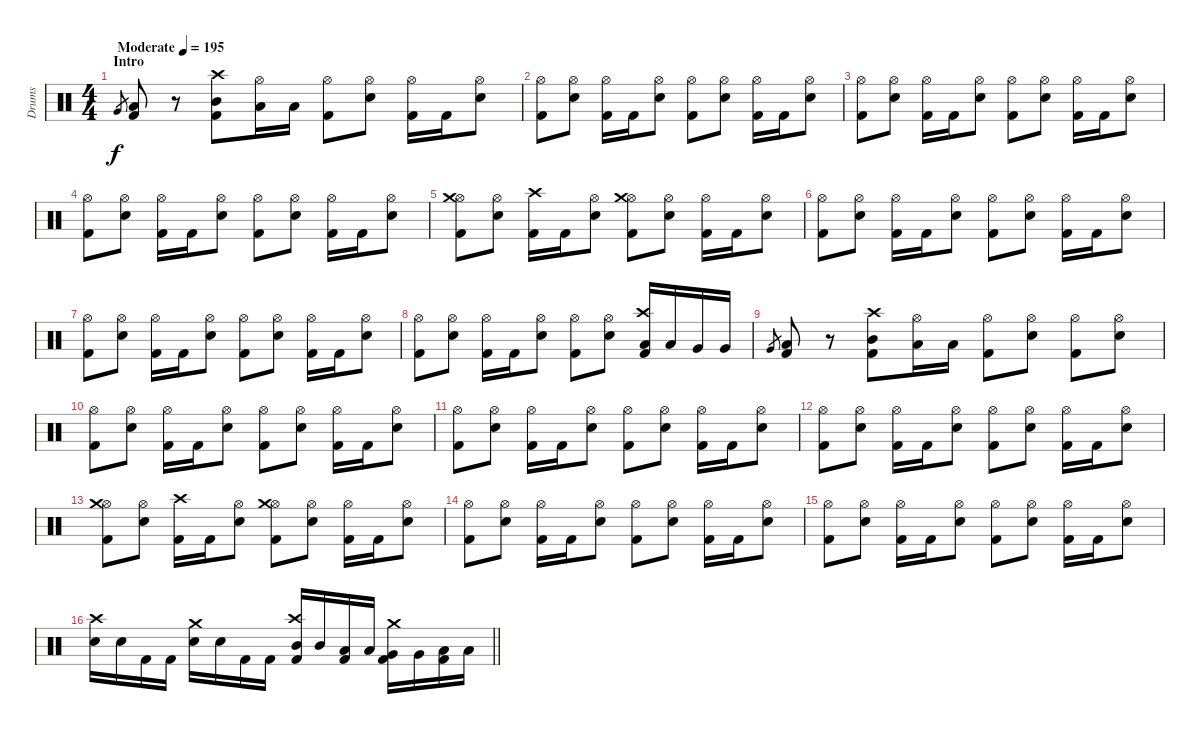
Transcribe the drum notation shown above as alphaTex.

\track ("Drums" "Drums") {instrument percussion}
\staff {score}
\articulation defaults
\ts (4 4)
\section ("" "Intro")
\tempo (195 "Moderate")
\clef neutral
\ks c "Very Low Tom (hit)".8{gr dy f}
("Low Floor Tom (hit)" "Kick (hit) 2").8 r.8 ("Crash high (hit)" "Mid Tom (hit)" "Kick (hit) 2").8 ("Hi-Hat (open)" "Low Tom (hit)").16 "Low Tom (hit)".16 ("Hi-Hat (open)" "Kick (hit) 2").8 ("Hi-Hat (open)" "Snare (hit) 2").8 ("Hi-Hat (open)" "Kick (hit) 2").16 "Kick (hit) 2".16 ("Hi-Hat (open)" "Snare (hit) 2").8 |
("Hi-Hat (open)" "Kick (hit) 2").8 ("Hi-Hat (open)" "Snare (hit) 2").8 ("Hi-Hat (open)" "Kick (hit) 2").16 "Kick (hit) 2".16 ("Hi-Hat (open)" "Snare (hit) 2").8 ("Hi-Hat (open)" "Kick (hit) 2").8 ("Hi-Hat (open)" "Snare (hit) 2").8 ("Hi-Hat (open)" "Kick (hit) 2").16 "Kick (hit) 2".16 ("Hi-Hat (open)" "Snare (hit) 2").8 |
("Hi-Hat (open)" "Kick (hit) 2").8 ("Hi-Hat (open)" "Snare (hit) 2").8 ("Hi-Hat (open)" "Kick (hit) 2").16 "Kick (hit) 2".16 ("Hi-Hat (open)" "Snare (hit) 2").8 ("Hi-Hat (open)" "Kick (hit) 2").8 ("Hi-Hat (open)" "Snare (hit) 2").8 ("Hi-Hat (open)" "Kick (hit) 2").16 "Kick (hit) 2".16 ("Hi-Hat (open)" "Snare (hit) 2").8 |
("Hi-Hat (open)" "Kick (hit) 2").8 ("Hi-Hat (open)" "Snare (hit) 2").8 ("Hi-Hat (open)" "Kick (hit) 2").16 "Kick (hit) 2".16 ("Hi-Hat (open)" "Snare (hit) 2").8 ("Hi-Hat (open)" "Kick (hit) 2").8 ("Hi-Hat (open)" "Snare (hit) 2").8 ("Hi-Hat (open)" "Kick (hit) 2").16 "Kick (hit) 2".16 ("Hi-Hat (open)" "Snare (hit) 2").8 |
("Hi-Hat (open)" "Crash medium (hit)" "Kick (hit) 2").8 ("Hi-Hat (open)" "Snare (hit) 2").8 ("Crash high (hit)" "Kick (hit) 2").16 "Kick (hit) 2".16 ("Hi-Hat (open)" "Snare (hit) 2").8 ("Hi-Hat (open)" "Crash medium (hit)" "Kick (hit) 2").8 ("Hi-Hat (open)" "Snare (hit) 2").8 ("Hi-Hat (open)" "Kick (hit) 2").16 "Kick (hit) 2".16 ("Hi-Hat (open)" "Snare (hit) 2").8 |
("Hi-Hat (open)" "Kick (hit) 2").8 ("Hi-Hat (open)" "Snare (hit) 2").8 ("Hi-Hat (open)" "Kick (hit) 2").16 "Kick (hit) 2".16 ("Hi-Hat (open)" "Snare (hit) 2").8 ("Hi-Hat (open)" "Kick (hit) 2").8 ("Hi-Hat (open)" "Snare (hit) 2").8 ("Hi-Hat (open)" "Kick (hit) 2").16 "Kick (hit) 2".16 ("Hi-Hat (open)" "Snare (hit) 2").8 |
("Hi-Hat (open)" "Kick (hit) 2").8 ("Hi-Hat (open)" "Snare (hit) 2").8 ("Hi-Hat (open)" "Kick (hit) 2").16 "Kick (hit) 2".16 ("Hi-Hat (open)" "Snare (hit) 2").8 ("Hi-Hat (open)" "Kick (hit) 2").8 ("Hi-Hat (open)" "Snare (hit) 2").8 ("Hi-Hat (open)" "Kick (hit) 2").16 "Kick (hit) 2".16 ("Hi-Hat (open)" "Snare (hit) 2").8 |
("Hi-Hat (open)" "Kick (hit) 2").8 ("Hi-Hat (open)" "Snare (hit) 2").8 ("Hi-Hat (open)" "Kick (hit) 2").16 "Kick (hit) 2".16 ("Hi-Hat (open)" "Snare (hit) 2").8 ("Hi-Hat (open)" "Kick (hit) 2").8 ("Hi-Hat (open)" "Snare (hit) 2").8 ("Crash high (hit)" "Low Tom (hit)" "Kick (hit) 2").16 "Low Tom (hit)".16 "Very Low Tom (hit)".16 "Very Low Tom (hit)".16 |
"Very Low Tom (hit)".8{gr} ("Low Floor Tom (hit)" "Kick (hit) 2").8 r.8 ("Crash high (hit)" "Mid Tom (hit)" "Kick (hit) 2").8 ("Hi-Hat (open)" "Low Tom (hit)").16 "Low Tom (hit)".16 ("Hi-Hat (open)" "Kick (hit) 2").8 ("Hi-Hat (open)" "Snare (hit) 2").8 ("Hi-Hat (open)" "Kick (hit) 2").8 ("Hi-Hat (open)" "Snare (hit) 2").8 |
("Hi-Hat (open)" "Kick (hit) 2").8 ("Hi-Hat (open)" "Snare (hit) 2").8 ("Hi-Hat (open)" "Kick (hit) 2").16 "Kick (hit) 2".16 ("Hi-Hat (open)" "Snare (hit) 2").8 ("Hi-Hat (open)" "Kick (hit) 2").8 ("Hi-Hat (open)" "Snare (hit) 2").8 ("Hi-Hat (open)" "Kick (hit) 2").16 "Kick (hit) 2".16 ("Hi-Hat (open)" "Snare (hit) 2").8 |
("Hi-Hat (open)" "Kick (hit) 2").8 ("Hi-Hat (open)" "Snare (hit) 2").8 ("Hi-Hat (open)" "Kick (hit) 2").16 "Kick (hit) 2".16 ("Hi-Hat (open)" "Snare (hit) 2").8 ("Hi-Hat (open)" "Kick (hit) 2").8 ("Hi-Hat (open)" "Snare (hit) 2").8 ("Hi-Hat (open)" "Kick (hit) 2").16 "Kick (hit) 2".16 ("Hi-Hat (open)" "Snare (hit) 2").8 |
("Hi-Hat (open)" "Kick (hit) 2").8 ("Hi-Hat (open)" "Snare (hit) 2").8 ("Hi-Hat (open)" "Kick (hit) 2").16 "Kick (hit) 2".16 ("Hi-Hat (open)" "Snare (hit) 2").8 ("Hi-Hat (open)" "Kick (hit) 2").8 ("Hi-Hat (open)" "Snare (hit) 2").8 ("Hi-Hat (open)" "Kick (hit) 2").16 "Kick (hit) 2".16 ("Hi-Hat (open)" "Snare (hit) 2").8 |
("Hi-Hat (open)" "Crash medium (hit)" "Kick (hit) 2").8 ("Hi-Hat (open)" "Snare (hit) 2").8 ("Crash high (hit)" "Kick (hit) 2").16 "Kick (hit) 2".16 ("Hi-Hat (open)" "Snare (hit) 2").8 ("Hi-Hat (open)" "Crash medium (hit)" "Kick (hit) 2").8 ("Hi-Hat (open)" "Snare (hit) 2").8 ("Hi-Hat (open)" "Kick (hit) 2").16 "Kick (hit) 2".16 ("Hi-Hat (open)" "Snare (hit) 2").8 |
("Hi-Hat (open)" "Kick (hit) 2").8 ("Hi-Hat (open)" "Snare (hit) 2").8 ("Hi-Hat (open)" "Kick (hit) 2").16 "Kick (hit) 2".16 ("Hi-Hat (open)" "Snare (hit) 2").8 ("Hi-Hat (open)" "Kick (hit) 2").8 ("Hi-Hat (open)" "Snare (hit) 2").8 ("Hi-Hat (open)" "Kick (hit) 2").16 "Kick (hit) 2".16 ("Hi-Hat (open)" "Snare (hit) 2").8 |
("Hi-Hat (open)" "Kick (hit) 2").8 ("Hi-Hat (open)" "Snare (hit) 2").8 ("Hi-Hat (open)" "Kick (hit) 2").16 "Kick (hit) 2".16 ("Hi-Hat (open)" "Snare (hit) 2").8 ("Hi-Hat (open)" "Kick (hit) 2").8 ("Hi-Hat (open)" "Snare (hit) 2").8 ("Hi-Hat (open)" "Kick (hit) 2").16 "Kick (hit) 2".16 ("Hi-Hat (open)" "Snare (hit) 2").8 |
\barLineRight lightlight
("Crash high (hit)" "Snare (hit) 2").16 "Snare (hit) 2".16 "Kick (hit) 2".16 "Kick (hit) 2".16 ("Crash medium (hit)" "Snare (hit) 2").16 "Snare (hit) 2".16 "Kick (hit) 2".16 "Kick (hit) 2".16 ("Crash high (hit)" "Mid Tom (hit)" "Kick (hit) 2").16 "Mid Tom (hit)".16 ("Low Tom (hit)" "Kick (hit) 2").16 "Low Tom (hit)".16 ("Crash medium (hit)" "Very Low Tom (hit)" "Kick (hit) 2").16 "Very Low Tom (hit)".16 ("Low Floor Tom (hit)" "Kick (hit) 2").16 "Low Floor Tom (hit)".16
